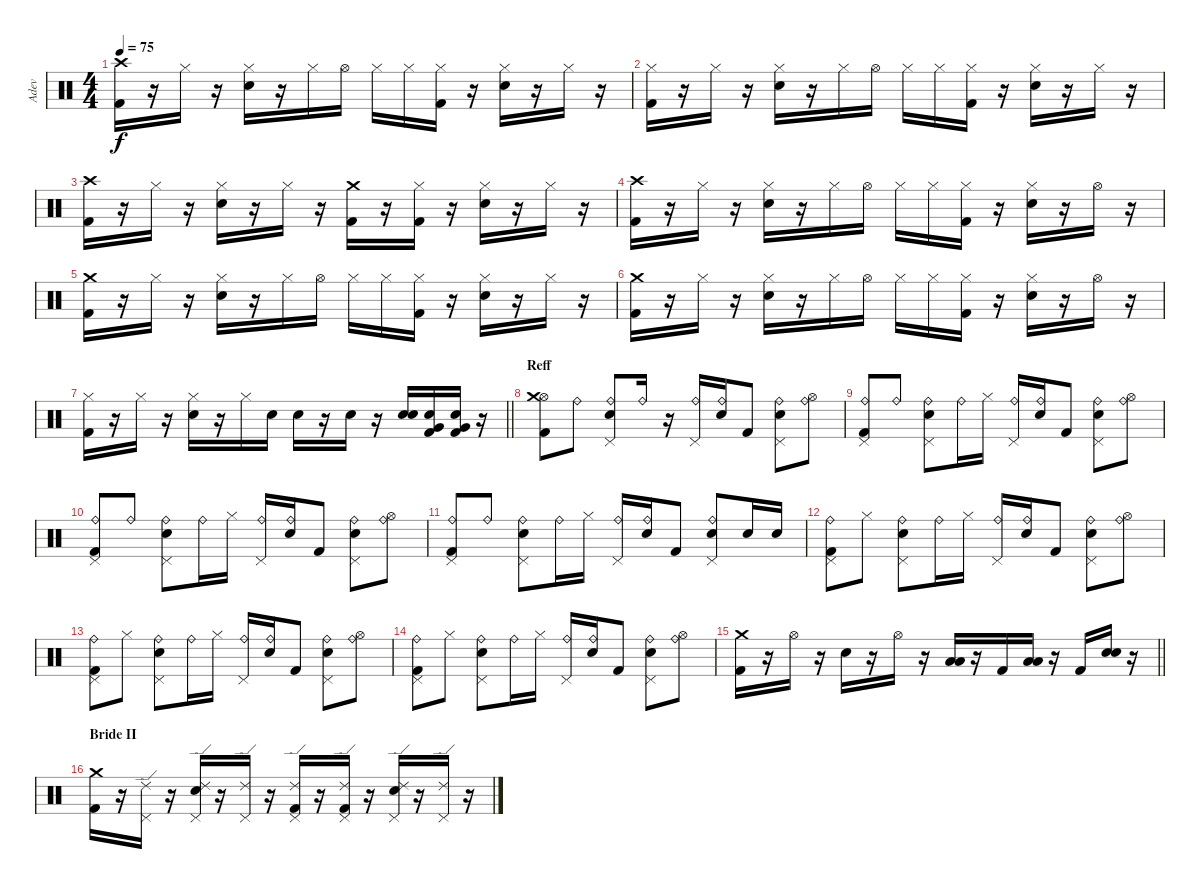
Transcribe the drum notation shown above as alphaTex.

\track ("Adev" "Adev") {instrument percussion}
\staff {score}
\articulation defaults
\ts (4 4)
\tempo 75
\clef neutral
\ks c
("Crash high (hit)" "Kick (hit) 2").16{dy f} r.16 "Hi-Hat (closed)".16 r.16 ("Hi-Hat (closed)" "Electric Snare (hit)").16 r.16 "Hi-Hat (closed)".16 "Hi-Hat (open)".16 "Hi-Hat (closed)".16 "Hi-Hat (closed)".16 ("Hi-Hat (closed)" "Kick (hit) 2").16 r.16 ("Hi-Hat (closed)" "Electric Snare (hit)").16 r.16 "Hi-Hat (closed)".16 r.16 |
("Hi-Hat (closed)" "Kick (hit) 2").16 r.16 "Hi-Hat (closed)".16 r.16 ("Hi-Hat (closed)" "Electric Snare (hit)").16 r.16 "Hi-Hat (closed)".16 "Hi-Hat (open)".16 "Hi-Hat (closed)".16 "Hi-Hat (closed)".16 ("Hi-Hat (closed)" "Kick (hit) 2").16 r.16 ("Hi-Hat (closed)" "Electric Snare (hit)").16 r.16 "Hi-Hat (closed)".16 r.16 |
("Crash high (hit)" "Kick (hit) 2").16 r.16 "Hi-Hat (closed)".16 r.16 ("Hi-Hat (closed)" "Electric Snare (hit)").16 r.16 "Hi-Hat (closed)".16 r.16 ("Crash medium (hit)" "Kick (hit) 2").16 r.16 ("Hi-Hat (closed)" "Kick (hit) 2").16 r.16 ("Hi-Hat (closed)" "Electric Snare (hit)").16 r.16 "Hi-Hat (closed)".16 r.16 |
("Crash high (hit)" "Kick (hit) 2").16 r.16 "Hi-Hat (closed)".16 r.16 ("Hi-Hat (closed)" "Electric Snare (hit)").16 r.16 "Hi-Hat (closed)".16 "Hi-Hat (open)".16 "Hi-Hat (closed)".16 "Hi-Hat (closed)".16 ("Hi-Hat (closed)" "Kick (hit) 2").16 r.16 ("Hi-Hat (closed)" "Electric Snare (hit)").16 r.16 "Hi-Hat (open)".16 r.16 |
("Crash medium (hit)" "Kick (hit) 2").16 r.16 "Hi-Hat (closed)".16 r.16 ("Hi-Hat (closed)" "Electric Snare (hit)").16 r.16 "Hi-Hat (closed)".16 "Hi-Hat (open)".16 "Hi-Hat (closed)".16 "Hi-Hat (closed)".16 ("Hi-Hat (closed)" "Kick (hit) 2").16 r.16 ("Hi-Hat (closed)" "Electric Snare (hit)").16 r.16 "Hi-Hat (closed)".16 r.16 |
("Crash medium (hit)" "Kick (hit) 2").16 r.16 "Hi-Hat (closed)".16 r.16 ("Hi-Hat (closed)" "Electric Snare (hit)").16 r.16 "Hi-Hat (closed)".16 "Hi-Hat (open)".16 "Hi-Hat (closed)".16 "Hi-Hat (closed)".16 ("Hi-Hat (closed)" "Kick (hit) 2").16 r.16 ("Hi-Hat (closed)" "Electric Snare (hit)").16 r.16 "Hi-Hat (open)".16 r.16 |
\barLineRight lightlight
("Hi-Hat (closed)" "Kick (hit) 2").16 r.16 "Hi-Hat (closed)".16 r.16 ("Hi-Hat (closed)" "Electric Snare (hit)").16 r.16 "Hi-Hat (closed)".16 "Electric Snare (hit)".16 "Electric Snare (hit)".16 r.16 "Electric Snare (hit)".16 r.16 ("Electric Snare (hit)" "Electric Snare (hit)").16{bu 120} ("Electric Snare (hit)" "Very Low Tom (hit)" "Kick (hit) 2").16 ("Electric Snare (hit)" "Very Low Tom (hit)" "Kick (hit) 2").16 r.16 |
\section ("" "Reff")
("Hi-Hat (open)" "Crash medium (hit)" "Kick (hit) 2").8 "Ride (bell)".8 ("Pedal Hi-Hat (hit)" "Ride (bell)" "Electric Snare (hit)").8 "Ride (bell)".16 r.16 ("Pedal Hi-Hat (hit)" "Ride (bell)").16 ("Ride (bell)" "Electric Snare (hit)").16 "Kick (hit) 2".8 ("Pedal Hi-Hat (hit)" "Ride (bell)" "Electric Snare (hit)").8 ("Hi-Hat (open)" "Ride (bell)").8 |
("Pedal Hi-Hat (hit)" "Ride (bell)" "Kick (hit) 2").8 "Ride (bell)".8 ("Pedal Hi-Hat (hit)" "Ride (bell)" "Electric Snare (hit)").8 "Ride (bell)".16 "Hi-Hat (closed)".16 ("Pedal Hi-Hat (hit)" "Ride (bell)").16 ("Ride (bell)" "Electric Snare (hit)").16 "Kick (hit) 2".8 ("Pedal Hi-Hat (hit)" "Ride (bell)" "Electric Snare (hit)").8 ("Ride (bell)" "Hi-Hat (open)").8 |
("Pedal Hi-Hat (hit)" "Ride (bell)" "Kick (hit) 2").8 "Ride (bell)".8 ("Pedal Hi-Hat (hit)" "Ride (bell)" "Electric Snare (hit)").8 "Ride (bell)".16 "Hi-Hat (closed)".16 ("Pedal Hi-Hat (hit)" "Ride (bell)").16 ("Ride (bell)" "Electric Snare (hit)").16 "Kick (hit) 2".8 ("Pedal Hi-Hat (hit)" "Ride (bell)" "Electric Snare (hit)").8 ("Ride (bell)" "Hi-Hat (open)").8 |
("Pedal Hi-Hat (hit)" "Ride (bell)" "Kick (hit) 2").8 "Ride (bell)".8 ("Pedal Hi-Hat (hit)" "Ride (bell)" "Electric Snare (hit)").8 "Ride (bell)".16 "Hi-Hat (closed)".16 ("Pedal Hi-Hat (hit)" "Ride (bell)").16 ("Ride (bell)" "Electric Snare (hit)").16 "Kick (hit) 2".8 ("Pedal Hi-Hat (hit)" "Ride (bell)" "Electric Snare (hit)").8 "Electric Snare (hit)".16 "Electric Snare (hit)".16 |
("Pedal Hi-Hat (hit)" "Ride (bell)" "Kick (hit) 2").8 "Hi-Hat (closed)".8 ("Pedal Hi-Hat (hit)" "Ride (bell)" "Electric Snare (hit)").8 "Ride (bell)".16 "Hi-Hat (closed)".16 ("Pedal Hi-Hat (hit)" "Ride (bell)").16 ("Ride (bell)" "Electric Snare (hit)").16 "Kick (hit) 2".8 ("Pedal Hi-Hat (hit)" "Ride (bell)" "Electric Snare (hit)").8 ("Ride (bell)" "Hi-Hat (open)").8 |
("Pedal Hi-Hat (hit)" "Ride (bell)" "Kick (hit) 2").8 "Hi-Hat (closed)".8 ("Pedal Hi-Hat (hit)" "Ride (bell)" "Electric Snare (hit)").8 "Ride (bell)".16 "Hi-Hat (closed)".16 ("Pedal Hi-Hat (hit)" "Ride (bell)").16 ("Ride (bell)" "Electric Snare (hit)").16 "Kick (hit) 2".8 ("Pedal Hi-Hat (hit)" "Ride (bell)" "Electric Snare (hit)").8 ("Ride (bell)" "Hi-Hat (open)").8 |
("Pedal Hi-Hat (hit)" "Ride (bell)" "Kick (hit) 2").8 "Hi-Hat (closed)".8 ("Pedal Hi-Hat (hit)" "Ride (bell)" "Electric Snare (hit)").8 "Ride (bell)".16 "Hi-Hat (closed)".16 ("Pedal Hi-Hat (hit)" "Ride (bell)").16 ("Ride (bell)" "Electric Snare (hit)").16 "Kick (hit) 2".8 ("Pedal Hi-Hat (hit)" "Ride (bell)" "Electric Snare (hit)").8 ("Ride (bell)" "Hi-Hat (open)").8 |
\barLineRight lightlight
("Crash medium (hit)" "Kick (hit) 2").16 r.16 "Hi-Hat (open)".16 r.16 "Electric Snare (hit)".16 r.16 "Hi-Hat (open)".16 r.16 ("Low Tom (hit)" "Low Tom (hit)").16{bu 120} r.16 "Kick (hit) 2".16 ("Low Floor Tom (hit)" "Low Floor Tom (hit)").16{bu 120} r.16 "Kick (hit) 2".16 ("Electric Snare (hit)" "Electric Snare (hit)").16{bu 120} r.16 |
\section ("" "Bride II")
("Crash medium (hit)" "Kick (hit) 2").16 r.16 ("Ride (edge) 2" "Pedal Hi-Hat (hit)").16 r.16 ("Ride (edge) 2" "Pedal Hi-Hat (hit)" "Electric Snare (hit)").16 r.16 ("Ride (edge) 2" "Pedal Hi-Hat (hit)").16 r.16 ("Ride (edge) 2" "Pedal Hi-Hat (hit)" "Kick (hit) 2").16 r.16 ("Ride (edge) 2" "Pedal Hi-Hat (hit)" "Kick (hit) 2").16 r.16 ("Ride (edge) 2" "Pedal Hi-Hat (hit)" "Electric Snare (hit)").16 r.16 ("Ride (edge) 2" "Pedal Hi-Hat (hit)").16 r.16
